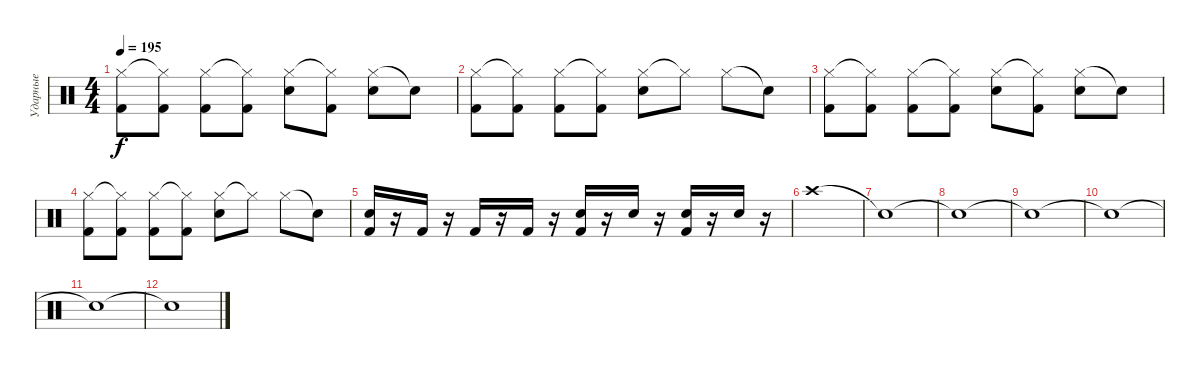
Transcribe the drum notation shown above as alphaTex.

\track ("Ударные" "Ударные") {instrument percussion}
\staff {score}
\articulation defaults
\ts (4 4)
\tempo 195
\clef neutral
\ks c
("Hi-Hat (closed)" "Kick (hit) 2").8{dy f} ("Hi-Hat (closed)"{t} "Kick (hit) 2").8 ("Hi-Hat (closed)" "Kick (hit) 2").8 ("Hi-Hat (closed)"{t} "Kick (hit) 2").8 ("Hi-Hat (closed)" "Snare (hit) 2").8 ("Hi-Hat (closed)"{t} "Kick (hit) 2").8 ("Hi-Hat (closed)" "Snare (hit) 2").8 "Snare (hit)"{t}.8 |
("Hi-Hat (closed)" "Kick (hit) 2").8 ("Hi-Hat (closed)"{t} "Kick (hit) 2").8 ("Hi-Hat (closed)" "Kick (hit) 2").8 ("Hi-Hat (closed)"{t} "Kick (hit) 2").8 ("Hi-Hat (closed)" "Snare (hit) 2").8 "Hi-Hat (closed)"{t}.8 "Hi-Hat (closed)".8 "Snare (hit)"{t}.8 |
("Hi-Hat (closed)" "Kick (hit) 2").8 ("Hi-Hat (closed)"{t} "Kick (hit) 2").8 ("Hi-Hat (closed)" "Kick (hit) 2").8 ("Hi-Hat (closed)"{t} "Kick (hit) 2").8 ("Hi-Hat (closed)" "Snare (hit) 2").8 ("Hi-Hat (closed)"{t} "Kick (hit) 2").8 ("Hi-Hat (closed)" "Snare (hit) 2").8 "Snare (hit)"{t}.8 |
("Hi-Hat (closed)" "Kick (hit) 2").8 ("Hi-Hat (closed)"{t} "Kick (hit) 2").8 ("Hi-Hat (closed)" "Kick (hit) 2").8 ("Hi-Hat (closed)"{t} "Kick (hit) 2").8 ("Hi-Hat (closed)" "Snare (hit) 2").8 "Hi-Hat (closed)"{t}.8 "Hi-Hat (closed)".8 "Snare (hit)"{t}.8 |
("Snare (hit) 2" "Kick (hit) 2").16 r.16 "Kick (hit) 2".16 r.16 "Kick (hit) 2".16 r.16 "Kick (hit) 2".16 r.16 ("Snare (hit) 2" "Kick (hit) 2").16 r.16 "Snare (hit) 2".16 r.16 ("Snare (hit) 2" "Kick (hit) 2").16 r.16 "Snare (hit) 2".16 r.16 |
"Crash high (hit)".1 |
"Snare (hit)"{t}.1 |
"Snare (hit)"{t}.1 |
"Snare (hit)"{t}.1 |
"Snare (hit)"{t}.1 |
"Snare (hit)"{t}.1 |
"Snare (hit)"{t}.1
